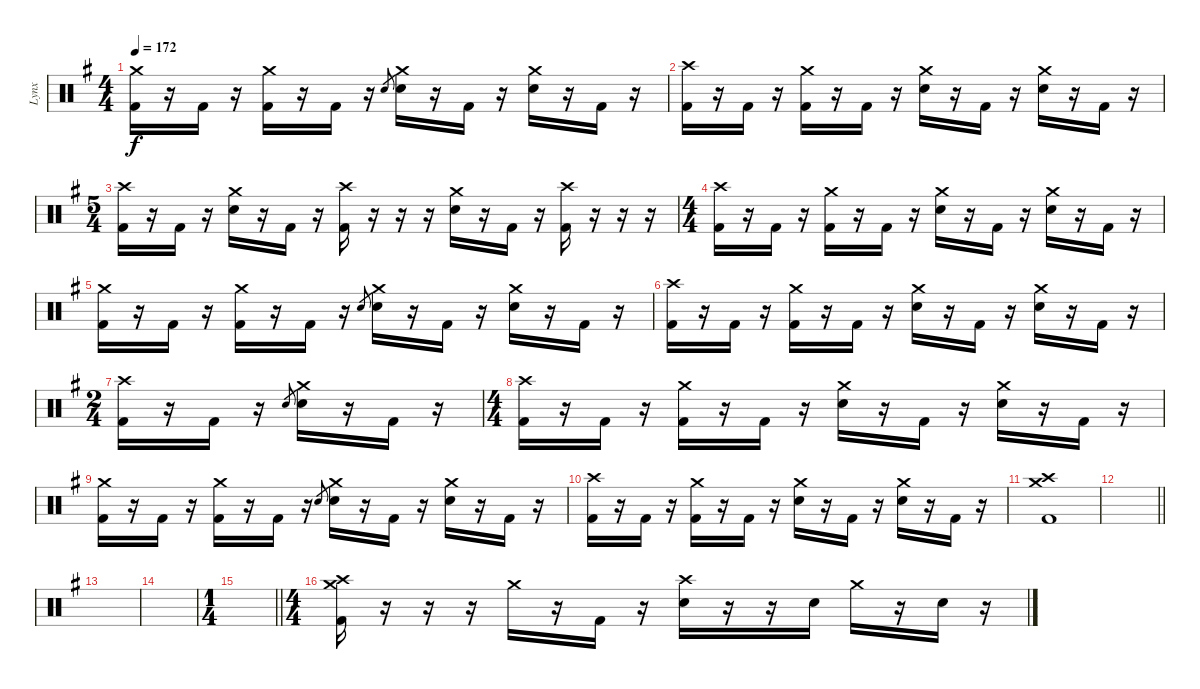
\track ("Lynx" "Lynx") {instrument percussion}
\staff {score}
\articulation defaults
\ts (4 4)
\tempo 172
\clef neutral
\ks g
("Crash medium (hit)" "Kick (hit) 2").16{dy f} r.16 "Kick (hit) 2".16 r.16 ("Crash medium (hit)" "Kick (hit) 2").16 r.16 "Kick (hit) 2".16 r.16 "Electric Snare (hit)".8{gr} ("Crash medium (hit)" "Electric Snare (hit)").16 r.16 "Kick (hit) 2".16 r.16 ("Crash medium (hit)" "Electric Snare (hit)").16 r.16 "Kick (hit) 2".16 r.16 |
("Crash high (hit)" "Kick (hit) 2").16 r.16 "Kick (hit) 2".16 r.16 ("Crash medium (hit)" "Kick (hit) 2").16 r.16 "Kick (hit) 2".16 r.16 ("Crash medium (hit)" "Electric Snare (hit)").16 r.16 "Kick (hit) 2".16 r.16 ("Crash medium (hit)" "Electric Snare (hit)").16 r.16 "Kick (hit) 2".16 r.16 |
\ts (5 4)
("Crash high (hit)" "Kick (hit) 2").16 r.16 "Kick (hit) 2".16 r.16 ("Crash medium (hit)" "Electric Snare (hit)").16 r.16 "Kick (hit) 2".16 r.16 ("Crash high (hit)" "Kick (hit) 2").16 r.16 r.16 r.16 ("Crash medium (hit)" "Electric Snare (hit)").16 r.16 "Kick (hit) 2".16 r.16 ("Crash high (hit)" "Kick (hit) 2").16 r.16 r.16 r.16 |
\ts (4 4)
("Crash high (hit)" "Kick (hit) 2").16 r.16 "Kick (hit) 2".16 r.16 ("Crash medium (hit)" "Kick (hit) 2").16 r.16 "Kick (hit) 2".16 r.16 ("Crash medium (hit)" "Electric Snare (hit)").16 r.16 "Kick (hit) 2".16 r.16 ("Crash medium (hit)" "Electric Snare (hit)").16 r.16 "Kick (hit) 2".16 r.16 |
("Crash medium (hit)" "Kick (hit) 2").16 r.16 "Kick (hit) 2".16 r.16 ("Crash medium (hit)" "Kick (hit) 2").16 r.16 "Kick (hit) 2".16 r.16 "Electric Snare (hit)".8{gr} ("Crash medium (hit)" "Electric Snare (hit)").16 r.16 "Kick (hit) 2".16 r.16 ("Crash medium (hit)" "Electric Snare (hit)").16 r.16 "Kick (hit) 2".16 r.16 |
("Crash high (hit)" "Kick (hit) 2").16 r.16 "Kick (hit) 2".16 r.16 ("Crash medium (hit)" "Kick (hit) 2").16 r.16 "Kick (hit) 2".16 r.16 ("Crash medium (hit)" "Electric Snare (hit)").16 r.16 "Kick (hit) 2".16 r.16 ("Crash medium (hit)" "Electric Snare (hit)").16 r.16 "Kick (hit) 2".16 r.16 |
\ts (2 4)
("Crash high (hit)" "Kick (hit) 2").16 r.16 "Kick (hit) 2".16 r.16 "Electric Snare (hit)".8{gr} ("Crash medium (hit)" "Electric Snare (hit)").16 r.16 "Kick (hit) 2".16 r.16 |
\ts (4 4)
("Crash high (hit)" "Kick (hit) 2").16 r.16 "Kick (hit) 2".16 r.16 ("Crash medium (hit)" "Kick (hit) 2").16 r.16 "Kick (hit) 2".16 r.16 ("Crash medium (hit)" "Electric Snare (hit)").16 r.16 "Kick (hit) 2".16 r.16 ("Crash medium (hit)" "Electric Snare (hit)").16 r.16 "Kick (hit) 2".16 r.16 |
("Crash medium (hit)" "Kick (hit) 2").16 r.16 "Kick (hit) 2".16 r.16 ("Crash medium (hit)" "Kick (hit) 2").16 r.16 "Kick (hit) 2".16 r.16 "Electric Snare (hit)".8{gr} ("Crash medium (hit)" "Electric Snare (hit)").16 r.16 "Kick (hit) 2".16 r.16 ("Crash medium (hit)" "Electric Snare (hit)").16 r.16 "Kick (hit) 2".16 r.16 |
("Crash high (hit)" "Kick (hit) 2").16 r.16 "Kick (hit) 2".16 r.16 ("Crash medium (hit)" "Kick (hit) 2").16 r.16 "Kick (hit) 2".16 r.16 ("Crash medium (hit)" "Electric Snare (hit)").16 r.16 "Kick (hit) 2".16 r.16 ("Crash medium (hit)" "Electric Snare (hit)").16 r.16 "Kick (hit) 2".16 r.16 |
("Crash high (hit)" "Crash medium (hit)" "Kick (hit) 2").1 |
\barLineRight lightlight
|
|
|
\ts (1 4)
\barLineRight lightlight
|
\ts (4 4)
\section ("" "")
("Crash high (hit)" "Crash medium (hit)" "Kick (hit) 2").16 r.16 r.16 r.16 "Crash medium (hit)".16 r.16 "Kick (hit) 2".16 r.16 ("Crash high (hit)" "Electric Snare (hit)").16 r.16 r.16 "Electric Snare (hit)".16 "Crash medium (hit)".16 r.16 "Electric Snare (hit)".16 r.16
